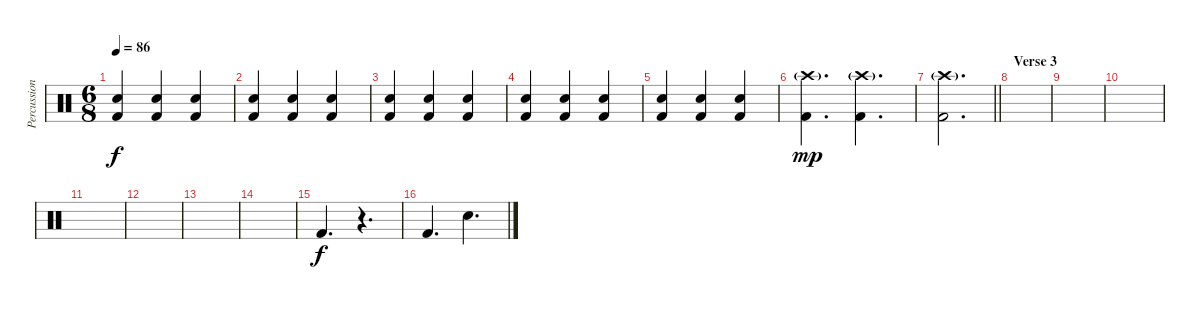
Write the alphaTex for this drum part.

\track ("Percussion" "Percussion") {instrument percussion}
\staff {score}
\articulation defaults
\ts (6 8)
\tempo 86
\clef neutral
\ks c
("Snare (hit) 2" "Kick (hit) 2").4{dy f} ("Snare (hit) 2" "Kick (hit) 2").4 ("Snare (hit) 2" "Kick (hit) 2").4 |
("Snare (hit) 2" "Kick (hit) 2").4 ("Snare (hit) 2" "Kick (hit) 2").4 ("Snare (hit) 2" "Kick (hit) 2").4 |
("Snare (hit) 2" "Kick (hit) 2").4 ("Snare (hit) 2" "Kick (hit) 2").4 ("Snare (hit) 2" "Kick (hit) 2").4 |
("Snare (hit) 2" "Kick (hit) 2").4 ("Snare (hit) 2" "Kick (hit) 2").4 ("Snare (hit) 2" "Kick (hit) 2").4 |
("Snare (hit) 2" "Kick (hit) 2").4 ("Snare (hit) 2" "Kick (hit) 2").4 ("Snare (hit) 2" "Kick (hit) 2").4 |
("Crash high (hit)"{g} "Kick (hit) 2").4{d dy mp} ("Crash high (hit)"{g} "Kick (hit) 2").4{d} |
\barLineRight lightlight
("Crash high (hit)"{g} "Kick (hit) 2").2{d} |
\section ("" "Verse 3")
|
|
|
|
|
|
|
"Kick (hit) 2".4{d dy f} r.4{d} |
"Kick (hit) 2".4{d} "Snare (hit) 2".4{d}
